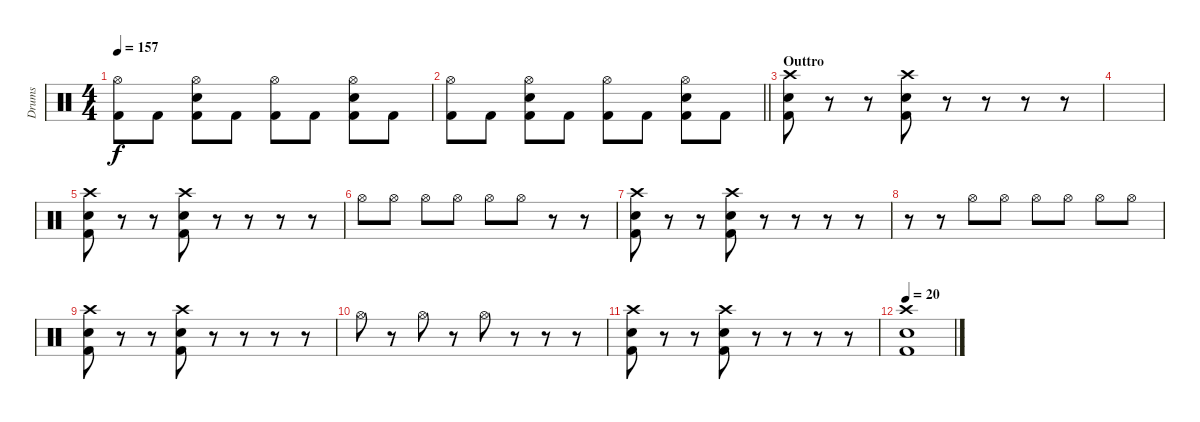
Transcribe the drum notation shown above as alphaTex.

\track ("Drums" "Drums") {instrument percussion}
\staff {score}
\articulation defaults
\ts (4 4)
\tempo 157
\clef neutral
\ks c
("Hi-Hat (open)" "Kick (hit) 2").8{dy f} "Kick (hit) 2".8 ("Hi-Hat (open)" "Electric Snare (hit)" "Kick (hit) 2").8 "Kick (hit) 2".8 ("Hi-Hat (open)" "Kick (hit) 2").8 "Kick (hit) 2".8 ("Hi-Hat (open)" "Kick (hit) 2" "Electric Snare (hit)").8 "Kick (hit) 2".8 |
\barLineRight lightlight
("Hi-Hat (open)" "Kick (hit) 2").8 "Kick (hit) 2".8 ("Hi-Hat (open)" "Electric Snare (hit)" "Kick (hit) 2").8 "Kick (hit) 2".8 ("Hi-Hat (open)" "Kick (hit) 2").8 "Kick (hit) 2".8 ("Hi-Hat (open)" "Kick (hit) 2" "Electric Snare (hit)").8 "Kick (hit) 2".8 |
\section ("" "Outtro")
("Crash high (hit)" "Electric Snare (hit)" "Kick (hit) 2").8 r.8 r.8 ("Crash high (hit)" "Electric Snare (hit)" "Kick (hit) 2").8 r.8 r.8 r.8 r.8 |
|
("Crash high (hit)" "Electric Snare (hit)" "Kick (hit) 2").8 r.8 r.8 ("Crash high (hit)" "Electric Snare (hit)" "Kick (hit) 2").8 r.8 r.8 r.8 r.8 |
"Hi-Hat (open)".8 "Hi-Hat (open)".8 "Hi-Hat (open)".8 "Hi-Hat (open)".8 "Hi-Hat (open)".8 "Hi-Hat (open)".8 r.8 r.8 |
("Crash high (hit)" "Electric Snare (hit)" "Kick (hit) 2").8 r.8 r.8 ("Crash high (hit)" "Electric Snare (hit)" "Kick (hit) 2").8 r.8 r.8 r.8 r.8 |
r.8 r.8 "Hi-Hat (open)".8 "Hi-Hat (open)".8 "Hi-Hat (open)".8 "Hi-Hat (open)".8 "Hi-Hat (open)".8 "Hi-Hat (open)".8 |
("Crash high (hit)" "Electric Snare (hit)" "Kick (hit) 2").8 r.8 r.8 ("Crash high (hit)" "Electric Snare (hit)" "Kick (hit) 2").8 r.8 r.8 r.8 r.8 |
"Hi-Hat (open)".8 r.8 "Hi-Hat (open)".8 r.8 "Hi-Hat (open)".8 r.8 r.8 r.8 |
("Crash high (hit)" "Electric Snare (hit)" "Kick (hit) 2").8 r.8 r.8 ("Crash high (hit)" "Electric Snare (hit)" "Kick (hit) 2").8 r.8 r.8 r.8 r.8 |
\tempo 20
("Crash high (hit)" "Electric Snare (hit)" "Kick (hit) 2").1
